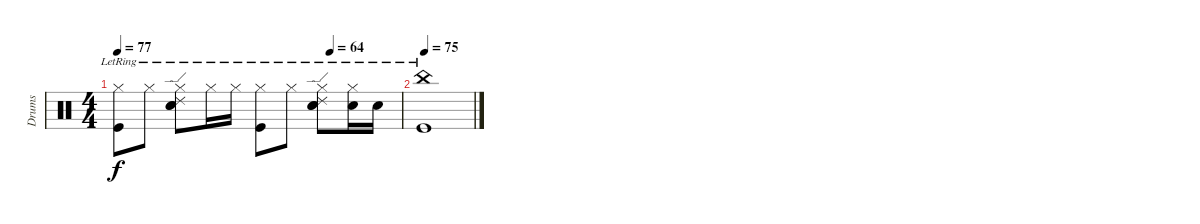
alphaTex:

\track ("Drums" "Drums") {instrument percussion}
\staff {score}
\articulation defaults
\ts (4 4)
\tempo 77
\tempo (64 0.75)
\clef neutral
\ks c
("Hi-Hat (closed)"{lr} "Kick (hit)"{lr}).8{dy f} "Hi-Hat (closed)"{lr}.8 ("Hi-Hat (closed)"{lr} "Snare (hit) 2"{lr} "Ride (edge) 2"{lr} "Electric Snare (hit)"{lr}).8 "Hi-Hat (closed)"{lr}.16 "Hi-Hat (closed)"{lr}.16 ("Hi-Hat (closed)"{lr} "Kick (hit)"{lr}).8 "Hi-Hat (closed)"{lr}.8 ("Hi-Hat (closed)"{lr} "Snare (hit) 2"{lr} "Ride (edge) 2"{lr} "Electric Snare (hit)"{lr}).8 ("Hi-Hat (closed)"{lr} "Snare (hit) 2"{lr}).16 "Snare (hit) 2"{lr}.16 |
\tempo 75
("China (hit)"{lr} "Kick (hit)"{lr}).1
